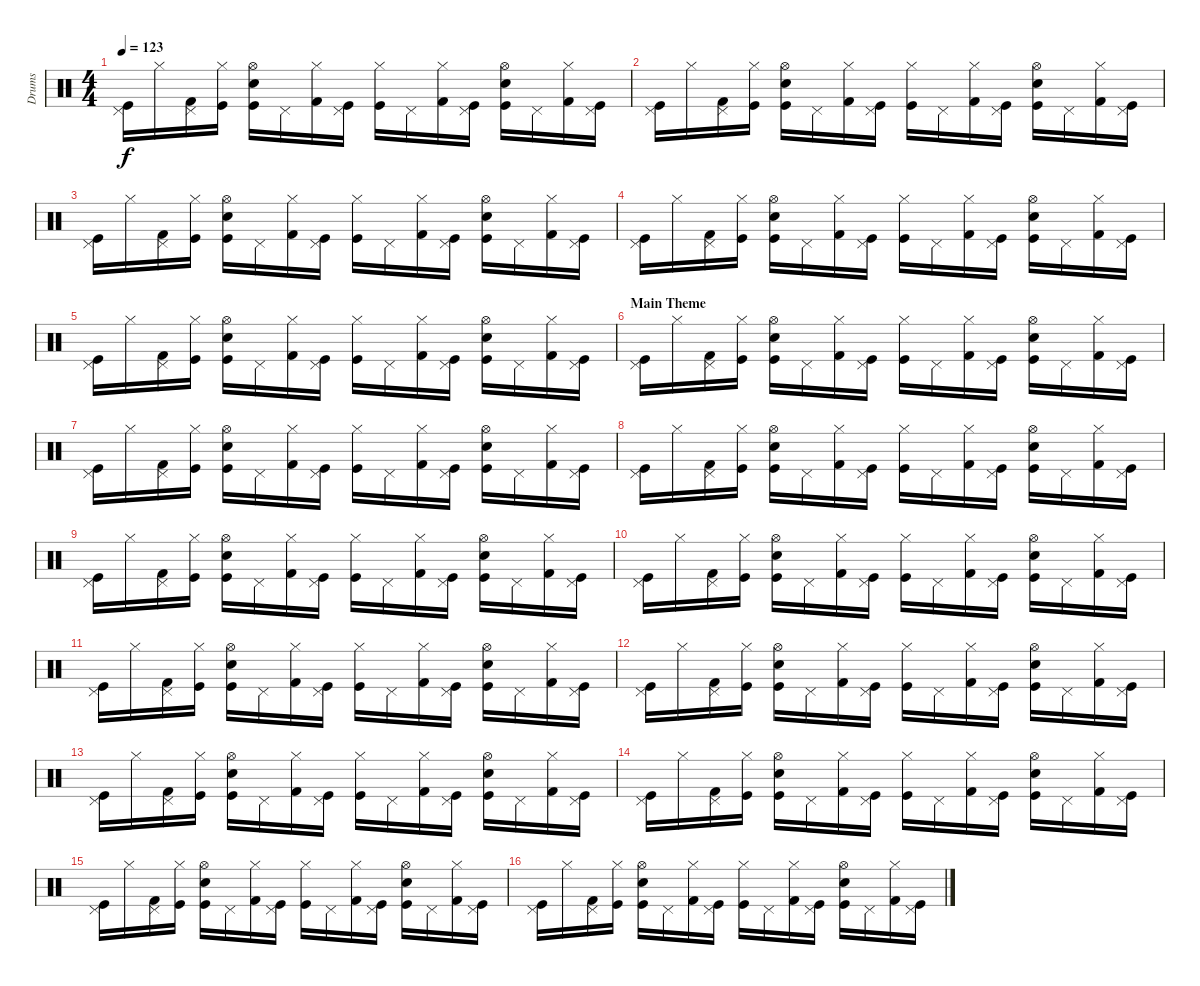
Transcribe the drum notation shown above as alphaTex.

\track ("Drums" "Drums") {instrument percussion}
\staff {score}
\articulation defaults
\ts (4 4)
\tempo 123
\clef neutral
\ks c
("Pedal Hi-Hat (hit)" "Kick (hit)").16{dy f} "Hi-Hat (closed)".16 ("Pedal Hi-Hat (hit)" "Kick (hit) 2").16 ("Hi-Hat (closed)" "Kick (hit)").16 ("Hi-Hat (open)" "Snare (hit) 2" "Kick (hit)").16 "Pedal Hi-Hat (hit)".16 ("Hi-Hat (closed)" "Kick (hit) 2").16 ("Pedal Hi-Hat (hit)" "Kick (hit)").16 ("Hi-Hat (closed)" "Kick (hit)").16 "Pedal Hi-Hat (hit)".16 ("Hi-Hat (closed)" "Kick (hit) 2").16 ("Pedal Hi-Hat (hit)" "Kick (hit)").16 ("Hi-Hat (open)" "Snare (hit) 2" "Kick (hit)").16 "Pedal Hi-Hat (hit)".16 ("Hi-Hat (closed)" "Kick (hit) 2").16 ("Pedal Hi-Hat (hit)" "Kick (hit)").16 |
("Pedal Hi-Hat (hit)" "Kick (hit)").16 "Hi-Hat (closed)".16 ("Pedal Hi-Hat (hit)" "Kick (hit) 2").16 ("Hi-Hat (closed)" "Kick (hit)").16 ("Hi-Hat (open)" "Snare (hit) 2" "Kick (hit)").16 "Pedal Hi-Hat (hit)".16 ("Hi-Hat (closed)" "Kick (hit) 2").16 ("Pedal Hi-Hat (hit)" "Kick (hit)").16 ("Hi-Hat (closed)" "Kick (hit)").16 "Pedal Hi-Hat (hit)".16 ("Hi-Hat (closed)" "Kick (hit) 2").16 ("Pedal Hi-Hat (hit)" "Kick (hit)").16 ("Hi-Hat (open)" "Snare (hit) 2" "Kick (hit)").16 "Pedal Hi-Hat (hit)".16 ("Hi-Hat (closed)" "Kick (hit) 2").16 ("Pedal Hi-Hat (hit)" "Kick (hit)").16 |
("Pedal Hi-Hat (hit)" "Kick (hit)").16 "Hi-Hat (closed)".16 ("Pedal Hi-Hat (hit)" "Kick (hit) 2").16 ("Hi-Hat (closed)" "Kick (hit)").16 ("Hi-Hat (open)" "Snare (hit) 2" "Kick (hit)").16 "Pedal Hi-Hat (hit)".16 ("Hi-Hat (closed)" "Kick (hit) 2").16 ("Pedal Hi-Hat (hit)" "Kick (hit)").16 ("Hi-Hat (closed)" "Kick (hit)").16 "Pedal Hi-Hat (hit)".16 ("Hi-Hat (closed)" "Kick (hit) 2").16 ("Pedal Hi-Hat (hit)" "Kick (hit)").16 ("Hi-Hat (open)" "Snare (hit) 2" "Kick (hit)").16 "Pedal Hi-Hat (hit)".16 ("Hi-Hat (closed)" "Kick (hit) 2").16 ("Pedal Hi-Hat (hit)" "Kick (hit)").16 |
("Pedal Hi-Hat (hit)" "Kick (hit)").16 "Hi-Hat (closed)".16 ("Pedal Hi-Hat (hit)" "Kick (hit) 2").16 ("Hi-Hat (closed)" "Kick (hit)").16 ("Hi-Hat (open)" "Snare (hit) 2" "Kick (hit)").16 "Pedal Hi-Hat (hit)".16 ("Hi-Hat (closed)" "Kick (hit) 2").16 ("Pedal Hi-Hat (hit)" "Kick (hit)").16 ("Hi-Hat (closed)" "Kick (hit)").16 "Pedal Hi-Hat (hit)".16 ("Hi-Hat (closed)" "Kick (hit) 2").16 ("Pedal Hi-Hat (hit)" "Kick (hit)").16 ("Hi-Hat (open)" "Snare (hit) 2" "Kick (hit)").16 "Pedal Hi-Hat (hit)".16 ("Hi-Hat (closed)" "Kick (hit) 2").16 ("Pedal Hi-Hat (hit)" "Kick (hit)").16 |
("Pedal Hi-Hat (hit)" "Kick (hit)").16 "Hi-Hat (closed)".16 ("Pedal Hi-Hat (hit)" "Kick (hit) 2").16 ("Hi-Hat (closed)" "Kick (hit)").16 ("Hi-Hat (open)" "Snare (hit) 2" "Kick (hit)").16 "Pedal Hi-Hat (hit)".16 ("Hi-Hat (closed)" "Kick (hit) 2").16 ("Pedal Hi-Hat (hit)" "Kick (hit)").16 ("Hi-Hat (closed)" "Kick (hit)").16 "Pedal Hi-Hat (hit)".16 ("Hi-Hat (closed)" "Kick (hit) 2").16 ("Pedal Hi-Hat (hit)" "Kick (hit)").16 ("Hi-Hat (open)" "Snare (hit) 2" "Kick (hit)").16 "Pedal Hi-Hat (hit)".16 ("Hi-Hat (closed)" "Kick (hit) 2").16 ("Pedal Hi-Hat (hit)" "Kick (hit)").16 |
\section ("" "Main Theme")
("Pedal Hi-Hat (hit)" "Kick (hit)").16 "Hi-Hat (closed)".16 ("Pedal Hi-Hat (hit)" "Kick (hit) 2").16 ("Hi-Hat (closed)" "Kick (hit)").16 ("Hi-Hat (open)" "Snare (hit) 2" "Kick (hit)").16 "Pedal Hi-Hat (hit)".16 ("Hi-Hat (closed)" "Kick (hit) 2").16 ("Pedal Hi-Hat (hit)" "Kick (hit)").16 ("Hi-Hat (closed)" "Kick (hit)").16 "Pedal Hi-Hat (hit)".16 ("Hi-Hat (closed)" "Kick (hit) 2").16 ("Pedal Hi-Hat (hit)" "Kick (hit)").16 ("Hi-Hat (open)" "Snare (hit) 2" "Kick (hit)").16 "Pedal Hi-Hat (hit)".16 ("Hi-Hat (closed)" "Kick (hit) 2").16 ("Pedal Hi-Hat (hit)" "Kick (hit)").16 |
("Pedal Hi-Hat (hit)" "Kick (hit)").16 "Hi-Hat (closed)".16 ("Pedal Hi-Hat (hit)" "Kick (hit) 2").16 ("Hi-Hat (closed)" "Kick (hit)").16 ("Hi-Hat (open)" "Snare (hit) 2" "Kick (hit)").16 "Pedal Hi-Hat (hit)".16 ("Hi-Hat (closed)" "Kick (hit) 2").16 ("Pedal Hi-Hat (hit)" "Kick (hit)").16 ("Hi-Hat (closed)" "Kick (hit)").16 "Pedal Hi-Hat (hit)".16 ("Hi-Hat (closed)" "Kick (hit) 2").16 ("Pedal Hi-Hat (hit)" "Kick (hit)").16 ("Hi-Hat (open)" "Snare (hit) 2" "Kick (hit)").16 "Pedal Hi-Hat (hit)".16 ("Hi-Hat (closed)" "Kick (hit) 2").16 ("Pedal Hi-Hat (hit)" "Kick (hit)").16 |
("Pedal Hi-Hat (hit)" "Kick (hit)").16 "Hi-Hat (closed)".16 ("Pedal Hi-Hat (hit)" "Kick (hit) 2").16 ("Hi-Hat (closed)" "Kick (hit)").16 ("Hi-Hat (open)" "Snare (hit) 2" "Kick (hit)").16 "Pedal Hi-Hat (hit)".16 ("Hi-Hat (closed)" "Kick (hit) 2").16 ("Pedal Hi-Hat (hit)" "Kick (hit)").16 ("Hi-Hat (closed)" "Kick (hit)").16 "Pedal Hi-Hat (hit)".16 ("Hi-Hat (closed)" "Kick (hit) 2").16 ("Pedal Hi-Hat (hit)" "Kick (hit)").16 ("Hi-Hat (open)" "Snare (hit) 2" "Kick (hit)").16 "Pedal Hi-Hat (hit)".16 ("Hi-Hat (closed)" "Kick (hit) 2").16 ("Pedal Hi-Hat (hit)" "Kick (hit)").16 |
("Pedal Hi-Hat (hit)" "Kick (hit)").16 "Hi-Hat (closed)".16 ("Pedal Hi-Hat (hit)" "Kick (hit) 2").16 ("Hi-Hat (closed)" "Kick (hit)").16 ("Hi-Hat (open)" "Snare (hit) 2" "Kick (hit)").16 "Pedal Hi-Hat (hit)".16 ("Hi-Hat (closed)" "Kick (hit) 2").16 ("Pedal Hi-Hat (hit)" "Kick (hit)").16 ("Hi-Hat (closed)" "Kick (hit)").16 "Pedal Hi-Hat (hit)".16 ("Hi-Hat (closed)" "Kick (hit) 2").16 ("Pedal Hi-Hat (hit)" "Kick (hit)").16 ("Hi-Hat (open)" "Snare (hit) 2" "Kick (hit)").16 "Pedal Hi-Hat (hit)".16 ("Hi-Hat (closed)" "Kick (hit) 2").16 ("Pedal Hi-Hat (hit)" "Kick (hit)").16 |
("Pedal Hi-Hat (hit)" "Kick (hit)").16 "Hi-Hat (closed)".16 ("Pedal Hi-Hat (hit)" "Kick (hit) 2").16 ("Hi-Hat (closed)" "Kick (hit)").16 ("Hi-Hat (open)" "Snare (hit) 2" "Kick (hit)").16 "Pedal Hi-Hat (hit)".16 ("Hi-Hat (closed)" "Kick (hit) 2").16 ("Pedal Hi-Hat (hit)" "Kick (hit)").16 ("Hi-Hat (closed)" "Kick (hit)").16 "Pedal Hi-Hat (hit)".16 ("Hi-Hat (closed)" "Kick (hit) 2").16 ("Pedal Hi-Hat (hit)" "Kick (hit)").16 ("Hi-Hat (open)" "Snare (hit) 2" "Kick (hit)").16 "Pedal Hi-Hat (hit)".16 ("Hi-Hat (closed)" "Kick (hit) 2").16 ("Pedal Hi-Hat (hit)" "Kick (hit)").16 |
("Pedal Hi-Hat (hit)" "Kick (hit)").16 "Hi-Hat (closed)".16 ("Pedal Hi-Hat (hit)" "Kick (hit) 2").16 ("Hi-Hat (closed)" "Kick (hit)").16 ("Hi-Hat (open)" "Snare (hit) 2" "Kick (hit)").16 "Pedal Hi-Hat (hit)".16 ("Hi-Hat (closed)" "Kick (hit) 2").16 ("Pedal Hi-Hat (hit)" "Kick (hit)").16 ("Hi-Hat (closed)" "Kick (hit)").16 "Pedal Hi-Hat (hit)".16 ("Hi-Hat (closed)" "Kick (hit) 2").16 ("Pedal Hi-Hat (hit)" "Kick (hit)").16 ("Hi-Hat (open)" "Snare (hit) 2" "Kick (hit)").16 "Pedal Hi-Hat (hit)".16 ("Hi-Hat (closed)" "Kick (hit) 2").16 ("Pedal Hi-Hat (hit)" "Kick (hit)").16 |
("Pedal Hi-Hat (hit)" "Kick (hit)").16 "Hi-Hat (closed)".16 ("Pedal Hi-Hat (hit)" "Kick (hit) 2").16 ("Hi-Hat (closed)" "Kick (hit)").16 ("Hi-Hat (open)" "Snare (hit) 2" "Kick (hit)").16 "Pedal Hi-Hat (hit)".16 ("Hi-Hat (closed)" "Kick (hit) 2").16 ("Pedal Hi-Hat (hit)" "Kick (hit)").16 ("Hi-Hat (closed)" "Kick (hit)").16 "Pedal Hi-Hat (hit)".16 ("Hi-Hat (closed)" "Kick (hit) 2").16 ("Pedal Hi-Hat (hit)" "Kick (hit)").16 ("Hi-Hat (open)" "Snare (hit) 2" "Kick (hit)").16 "Pedal Hi-Hat (hit)".16 ("Hi-Hat (closed)" "Kick (hit) 2").16 ("Pedal Hi-Hat (hit)" "Kick (hit)").16 |
("Pedal Hi-Hat (hit)" "Kick (hit)").16 "Hi-Hat (closed)".16 ("Pedal Hi-Hat (hit)" "Kick (hit) 2").16 ("Hi-Hat (closed)" "Kick (hit)").16 ("Hi-Hat (open)" "Snare (hit) 2" "Kick (hit)").16 "Pedal Hi-Hat (hit)".16 ("Hi-Hat (closed)" "Kick (hit) 2").16 ("Pedal Hi-Hat (hit)" "Kick (hit)").16 ("Hi-Hat (closed)" "Kick (hit)").16 "Pedal Hi-Hat (hit)".16 ("Hi-Hat (closed)" "Kick (hit) 2").16 ("Pedal Hi-Hat (hit)" "Kick (hit)").16 ("Hi-Hat (open)" "Snare (hit) 2" "Kick (hit)").16 "Pedal Hi-Hat (hit)".16 ("Hi-Hat (closed)" "Kick (hit) 2").16 ("Pedal Hi-Hat (hit)" "Kick (hit)").16 |
("Pedal Hi-Hat (hit)" "Kick (hit)").16 "Hi-Hat (closed)".16 ("Pedal Hi-Hat (hit)" "Kick (hit) 2").16 ("Hi-Hat (closed)" "Kick (hit)").16 ("Hi-Hat (open)" "Snare (hit) 2" "Kick (hit)").16 "Pedal Hi-Hat (hit)".16 ("Hi-Hat (closed)" "Kick (hit) 2").16 ("Pedal Hi-Hat (hit)" "Kick (hit)").16 ("Hi-Hat (closed)" "Kick (hit)").16 "Pedal Hi-Hat (hit)".16 ("Hi-Hat (closed)" "Kick (hit) 2").16 ("Pedal Hi-Hat (hit)" "Kick (hit)").16 ("Hi-Hat (open)" "Snare (hit) 2" "Kick (hit)").16 "Pedal Hi-Hat (hit)".16 ("Hi-Hat (closed)" "Kick (hit) 2").16 ("Pedal Hi-Hat (hit)" "Kick (hit)").16 |
("Pedal Hi-Hat (hit)" "Kick (hit)").16 "Hi-Hat (closed)".16 ("Pedal Hi-Hat (hit)" "Kick (hit) 2").16 ("Hi-Hat (closed)" "Kick (hit)").16 ("Hi-Hat (open)" "Snare (hit) 2" "Kick (hit)").16 "Pedal Hi-Hat (hit)".16 ("Hi-Hat (closed)" "Kick (hit) 2").16 ("Pedal Hi-Hat (hit)" "Kick (hit)").16 ("Hi-Hat (closed)" "Kick (hit)").16 "Pedal Hi-Hat (hit)".16 ("Hi-Hat (closed)" "Kick (hit) 2").16 ("Pedal Hi-Hat (hit)" "Kick (hit)").16 ("Hi-Hat (open)" "Snare (hit) 2" "Kick (hit)").16 "Pedal Hi-Hat (hit)".16 ("Hi-Hat (closed)" "Kick (hit) 2").16 ("Pedal Hi-Hat (hit)" "Kick (hit)").16 |
("Pedal Hi-Hat (hit)" "Kick (hit)").16 "Hi-Hat (closed)".16 ("Pedal Hi-Hat (hit)" "Kick (hit) 2").16 ("Hi-Hat (closed)" "Kick (hit)").16 ("Hi-Hat (open)" "Snare (hit) 2" "Kick (hit)").16 "Pedal Hi-Hat (hit)".16 ("Hi-Hat (closed)" "Kick (hit) 2").16 ("Pedal Hi-Hat (hit)" "Kick (hit)").16 ("Hi-Hat (closed)" "Kick (hit)").16 "Pedal Hi-Hat (hit)".16 ("Hi-Hat (closed)" "Kick (hit) 2").16 ("Pedal Hi-Hat (hit)" "Kick (hit)").16 ("Hi-Hat (open)" "Snare (hit) 2" "Kick (hit)").16 "Pedal Hi-Hat (hit)".16 ("Hi-Hat (closed)" "Kick (hit) 2").16 ("Pedal Hi-Hat (hit)" "Kick (hit)").16
